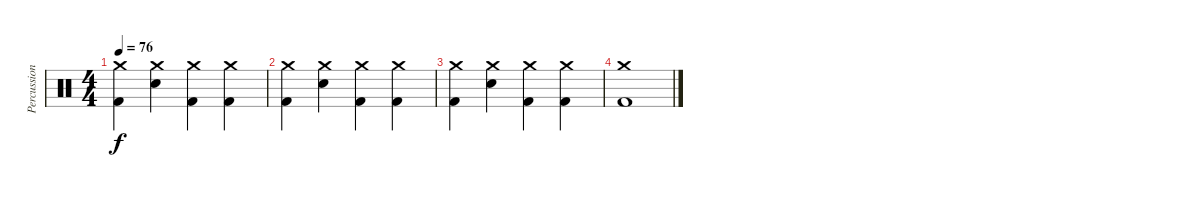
\track ("Percussion" "Percussion") {instrument percussion}
\staff {score}
\articulation defaults
\ts (4 4)
\tempo 76
\clef neutral
\ks c
("Crash medium (hit)" "Kick (hit) 2").4{dy f} ("Crash medium (hit)" "Snare (hit) 2").4 ("Crash medium (hit)" "Kick (hit) 2").4 ("Crash medium (hit)" "Kick (hit) 2").4 |
("Crash medium (hit)" "Kick (hit) 2").4 ("Crash medium (hit)" "Snare (hit) 2").4 ("Crash medium (hit)" "Kick (hit) 2").4 ("Crash medium (hit)" "Kick (hit) 2").4 |
("Crash medium (hit)" "Kick (hit) 2").4 ("Crash medium (hit)" "Snare (hit) 2").4 ("Crash medium (hit)" "Kick (hit) 2").4 ("Crash medium (hit)" "Kick (hit) 2").4 |
("Crash medium (hit)" "Kick (hit) 2").1
